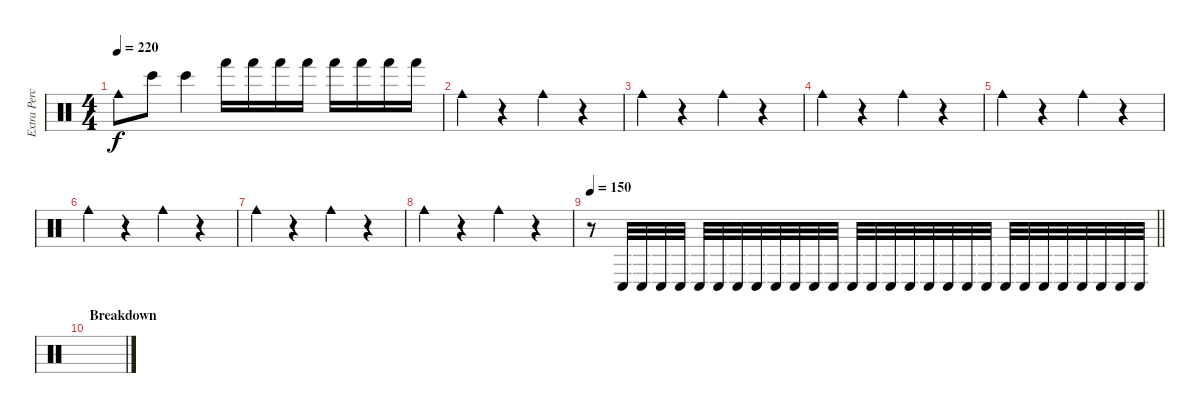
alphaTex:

\track ("Extra Percussion" "Extra Perc") {instrument percussion}
\staff {score}
\articulation defaults
\ts (4 4)
\tempo 220
\clef neutral
\ks c "Cowbell medium (hit)".8{dy f} "Bongo High (hit)".8 "Bongo High (hit)".4 "Hand (hit)".16 "Hand (hit)".16 "Hand (hit)".16 "Hand (hit)".16 "Hand (hit)".16 "Hand (hit)".16 "Hand (hit)".16 "Hand (hit)".16
|
"Cowbell medium (hit)".4 r.4 "Cowbell medium (hit)".4 r.4 |
"Cowbell medium (hit)".4 r.4 "Cowbell medium (hit)".4 r.4 |
"Cowbell medium (hit)".4 r.4 "Cowbell medium (hit)".4 r.4 |
"Cowbell medium (hit)".4 r.4 "Cowbell medium (hit)".4 r.4 |
"Cowbell medium (hit)".4 r.4 "Cowbell medium (hit)".4 r.4 |
"Cowbell medium (hit)".4 r.4 "Cowbell medium (hit)".4 r.4 |
"Cowbell medium (hit)".4 r.4 "Cowbell medium (hit)".4 r.4 |
\tempo 150
\barLineRight lightlight
r.8 "Conga low (hit)".32 "Conga low (hit)".32 "Conga low (hit)".32 "Conga low (hit)".32 "Conga low (hit)".32 "Conga low (hit)".32 "Conga low (hit)".32 "Conga low (hit)".32 "Conga low (hit)".32 "Conga low (hit)".32 "Conga low (hit)".32 "Conga low (hit)".32 "Conga low (hit)".32 "Conga low (hit)".32 "Conga low (hit)".32 "Conga low (hit)".32 "Conga low (hit)".32 "Conga low (hit)".32 "Conga low (hit)".32 "Conga low (hit)".32 "Conga low (hit)".32 "Conga low (hit)".32 "Conga low (hit)".32 "Conga low (hit)".32 "Conga low (hit)".32 "Conga low (hit)".32 "Conga low (hit)".32 "Conga low (hit)".32 |
\section ("" "Breakdown")
